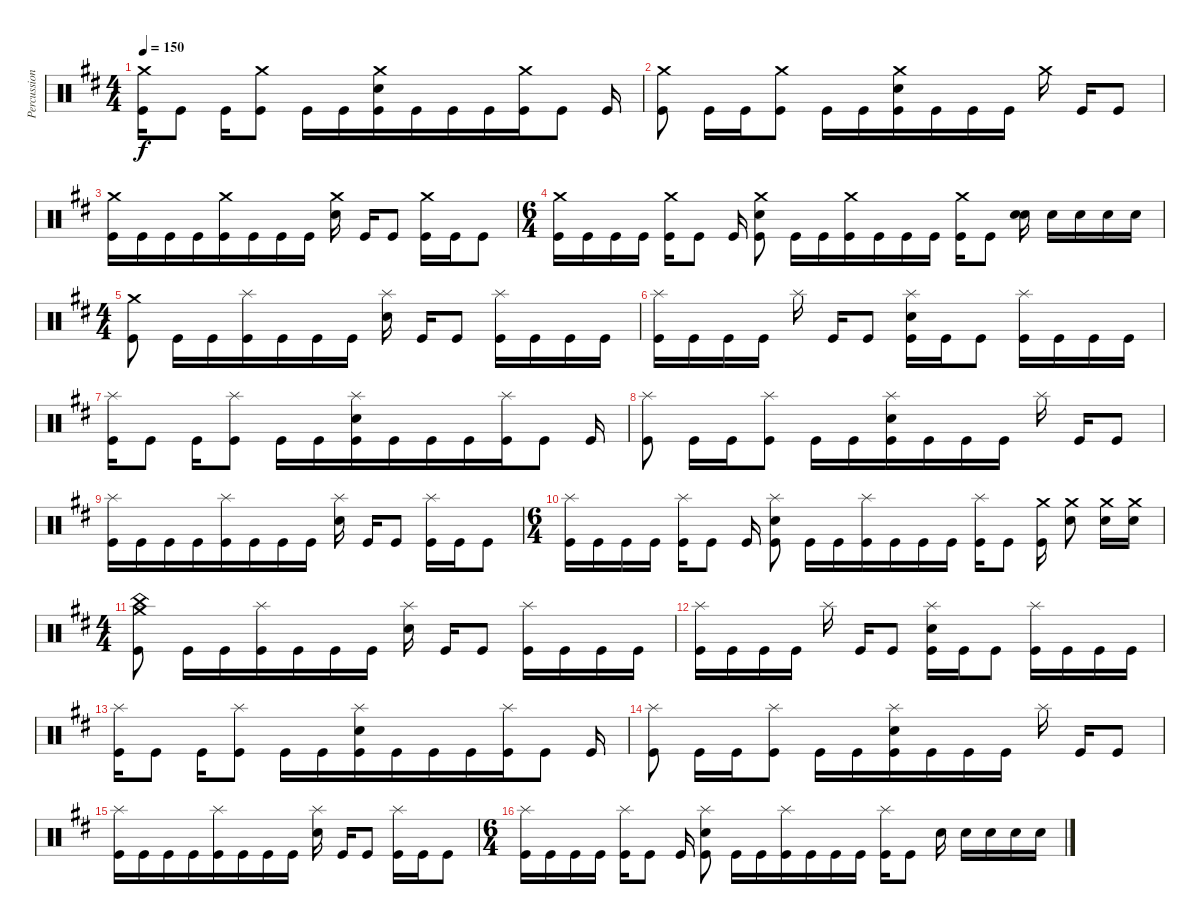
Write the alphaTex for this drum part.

\track ("Percussion" "Percussion") {instrument percussion}
\staff {score}
\articulation defaults
\ts (4 4)
\tempo 150
\clef neutral
\ks bminor
("Crash medium (hit)" "Kick (hit)").16{dy f} "Kick (hit)".8{beam split} "Kick (hit)".16{beam merge} ("Crash medium (hit)" "Kick (hit)").8{beam split} "Kick (hit)".16 "Kick (hit)".16{beam merge} ("Crash medium (hit)" "Electric Snare (hit)" "Kick (hit)").16 "Kick (hit)".16 "Kick (hit)".16 "Kick (hit)".16{beam merge} ("Crash medium (hit)" "Kick (hit)").16 "Kick (hit)".8{beam split} "Kick (hit)".16 |
("Crash medium (hit)" "Kick (hit)").8{beam split} "Kick (hit)".16 "Kick (hit)".16{beam merge} ("Crash medium (hit)" "Kick (hit)").8{beam split} "Kick (hit)".16 "Kick (hit)".16{beam merge} ("Crash medium (hit)" "Electric Snare (hit)" "Kick (hit)").16 "Kick (hit)".16 "Kick (hit)".16 "Kick (hit)".16 "Crash medium (hit)".16{beam split} "Kick (hit)".16 "Kick (hit)".8 |
("Crash medium (hit)" "Kick (hit)").16 "Kick (hit)".16 "Kick (hit)".16 "Kick (hit)".16{beam merge} ("Crash medium (hit)" "Kick (hit)").16 "Kick (hit)".16 "Kick (hit)".16 "Kick (hit)".16 ("Crash medium (hit)" "Electric Snare (hit)").16{beam split} "Kick (hit)".16 "Kick (hit)".8 ("Crash medium (hit)" "Kick (hit)").16 "Kick (hit)".16 "Kick (hit)".8 |
\ts (6 4)
("Crash medium (hit)" "Kick (hit)").16 "Kick (hit)".16 "Kick (hit)".16 "Kick (hit)".16 ("Crash medium (hit)" "Kick (hit)").16 "Kick (hit)".8{beam split} "Kick (hit)".16 ("Crash medium (hit)" "Electric Snare (hit)" "Kick (hit)").8{beam split} "Kick (hit)".16 "Kick (hit)".16{beam merge} ("Crash medium (hit)" "Kick (hit)").16 "Kick (hit)".16 "Kick (hit)".16 "Kick (hit)".16 ("Crash medium (hit)" "Kick (hit)").16 "Kick (hit)".8{beam split} ("Electric Snare (hit)" "Electric Snare (hit)").16 "Electric Snare (hit)".16 "Electric Snare (hit)".16 "Electric Snare (hit)".16 "Electric Snare (hit)".16 |
\ts (4 4)
("Crash medium (hit)" "Kick (hit)").8{beam split} "Kick (hit)".16 "Kick (hit)".16{beam merge} ("Splash (hit)" "Kick (hit)").16 "Kick (hit)".16 "Kick (hit)".16 "Kick (hit)".16 ("Splash (hit)" "Electric Snare (hit)").16{beam split} "Kick (hit)".16 "Kick (hit)".8 ("Splash (hit)" "Kick (hit)").16 "Kick (hit)".16 "Kick (hit)".16 "Kick (hit)".16 |
("Splash (hit)" "Kick (hit)").16 "Kick (hit)".16 "Kick (hit)".16 "Kick (hit)".16 "Splash (hit)".16{beam split} "Kick (hit)".16 "Kick (hit)".8 ("Splash (hit)" "Electric Snare (hit)" "Kick (hit)").16 "Kick (hit)".16 "Kick (hit)".8 ("Splash (hit)" "Kick (hit)").16 "Kick (hit)".16 "Kick (hit)".16 "Kick (hit)".16 |
("Splash (hit)" "Kick (hit)").16 "Kick (hit)".8{beam split} "Kick (hit)".16{beam merge} ("Splash (hit)" "Kick (hit)").8{beam split} "Kick (hit)".16 "Kick (hit)".16{beam merge} ("Splash (hit)" "Electric Snare (hit)" "Kick (hit)").16 "Kick (hit)".16 "Kick (hit)".16 "Kick (hit)".16{beam merge} ("Splash (hit)" "Kick (hit)").16 "Kick (hit)".8{beam split} "Kick (hit)".16 |
("Splash (hit)" "Kick (hit)").8{beam split} "Kick (hit)".16 "Kick (hit)".16{beam merge} ("Splash (hit)" "Kick (hit)").8{beam split} "Kick (hit)".16 "Kick (hit)".16{beam merge} ("Splash (hit)" "Electric Snare (hit)" "Kick (hit)").16 "Kick (hit)".16 "Kick (hit)".16 "Kick (hit)".16 "Splash (hit)".16{beam split} "Kick (hit)".16 "Kick (hit)".8 |
("Splash (hit)" "Kick (hit)").16 "Kick (hit)".16 "Kick (hit)".16 "Kick (hit)".16{beam merge} ("Splash (hit)" "Kick (hit)").16 "Kick (hit)".16 "Kick (hit)".16 "Kick (hit)".16 ("Splash (hit)" "Electric Snare (hit)").16{beam split} "Kick (hit)".16 "Kick (hit)".8 ("Splash (hit)" "Kick (hit)").16 "Kick (hit)".16 "Kick (hit)".8 |
\ts (6 4)
("Splash (hit)" "Kick (hit)").16 "Kick (hit)".16 "Kick (hit)".16 "Kick (hit)".16 ("Splash (hit)" "Kick (hit)").16 "Kick (hit)".8{beam split} "Kick (hit)".16 ("Splash (hit)" "Electric Snare (hit)" "Kick (hit)").8{beam split} "Kick (hit)".16 "Kick (hit)".16{beam merge} ("Splash (hit)" "Kick (hit)").16 "Kick (hit)".16 "Kick (hit)".16 "Kick (hit)".16 ("Splash (hit)" "Kick (hit)").16 "Kick (hit)".8{beam split} ("Crash medium (hit)" "Kick (hit)").16 ("Crash medium (hit)" "Electric Snare (hit)").8{beam split} ("Crash medium (hit)" "Electric Snare (hit)").16 ("Crash medium (hit)" "Electric Snare (hit)").16 |
\ts (4 4)
("Crash medium (hit)" "China (hit)" "Kick (hit)").8{beam split} "Kick (hit)".16 "Kick (hit)".16{beam merge} ("Splash (hit)" "Kick (hit)").16 "Kick (hit)".16 "Kick (hit)".16 "Kick (hit)".16 ("Splash (hit)" "Electric Snare (hit)").16{beam split} "Kick (hit)".16 "Kick (hit)".8 ("Splash (hit)" "Kick (hit)").16 "Kick (hit)".16 "Kick (hit)".16 "Kick (hit)".16 |
("Splash (hit)" "Kick (hit)").16 "Kick (hit)".16 "Kick (hit)".16 "Kick (hit)".16 "Splash (hit)".16{beam split} "Kick (hit)".16 "Kick (hit)".8 ("Splash (hit)" "Electric Snare (hit)" "Kick (hit)").16 "Kick (hit)".16 "Kick (hit)".8 ("Splash (hit)" "Kick (hit)").16 "Kick (hit)".16 "Kick (hit)".16 "Kick (hit)".16 |
("Splash (hit)" "Kick (hit)").16 "Kick (hit)".8{beam split} "Kick (hit)".16{beam merge} ("Splash (hit)" "Kick (hit)").8{beam split} "Kick (hit)".16 "Kick (hit)".16{beam merge} ("Splash (hit)" "Electric Snare (hit)" "Kick (hit)").16 "Kick (hit)".16 "Kick (hit)".16 "Kick (hit)".16{beam merge} ("Splash (hit)" "Kick (hit)").16 "Kick (hit)".8{beam split} "Kick (hit)".16 |
("Splash (hit)" "Kick (hit)").8{beam split} "Kick (hit)".16 "Kick (hit)".16{beam merge} ("Splash (hit)" "Kick (hit)").8{beam split} "Kick (hit)".16 "Kick (hit)".16{beam merge} ("Splash (hit)" "Electric Snare (hit)" "Kick (hit)").16 "Kick (hit)".16 "Kick (hit)".16 "Kick (hit)".16 "Splash (hit)".16{beam split} "Kick (hit)".16 "Kick (hit)".8 |
("Splash (hit)" "Kick (hit)").16 "Kick (hit)".16 "Kick (hit)".16 "Kick (hit)".16{beam merge} ("Splash (hit)" "Kick (hit)").16 "Kick (hit)".16 "Kick (hit)".16 "Kick (hit)".16 ("Splash (hit)" "Electric Snare (hit)").16{beam split} "Kick (hit)".16 "Kick (hit)".8 ("Splash (hit)" "Kick (hit)").16 "Kick (hit)".16 "Kick (hit)".8 |
\ts (6 4)
("Splash (hit)" "Kick (hit)").16 "Kick (hit)".16 "Kick (hit)".16 "Kick (hit)".16 ("Splash (hit)" "Kick (hit)").16 "Kick (hit)".8{beam split} "Kick (hit)".16 ("Splash (hit)" "Electric Snare (hit)" "Kick (hit)").8{beam split} "Kick (hit)".16 "Kick (hit)".16{beam merge} ("Splash (hit)" "Kick (hit)").16 "Kick (hit)".16 "Kick (hit)".16 "Kick (hit)".16 ("Splash (hit)" "Kick (hit)").16 "Kick (hit)".8{beam split} "Electric Snare (hit)".16 "Electric Snare (hit)".16 "Electric Snare (hit)".16 "Electric Snare (hit)".16 "Electric Snare (hit)".16
